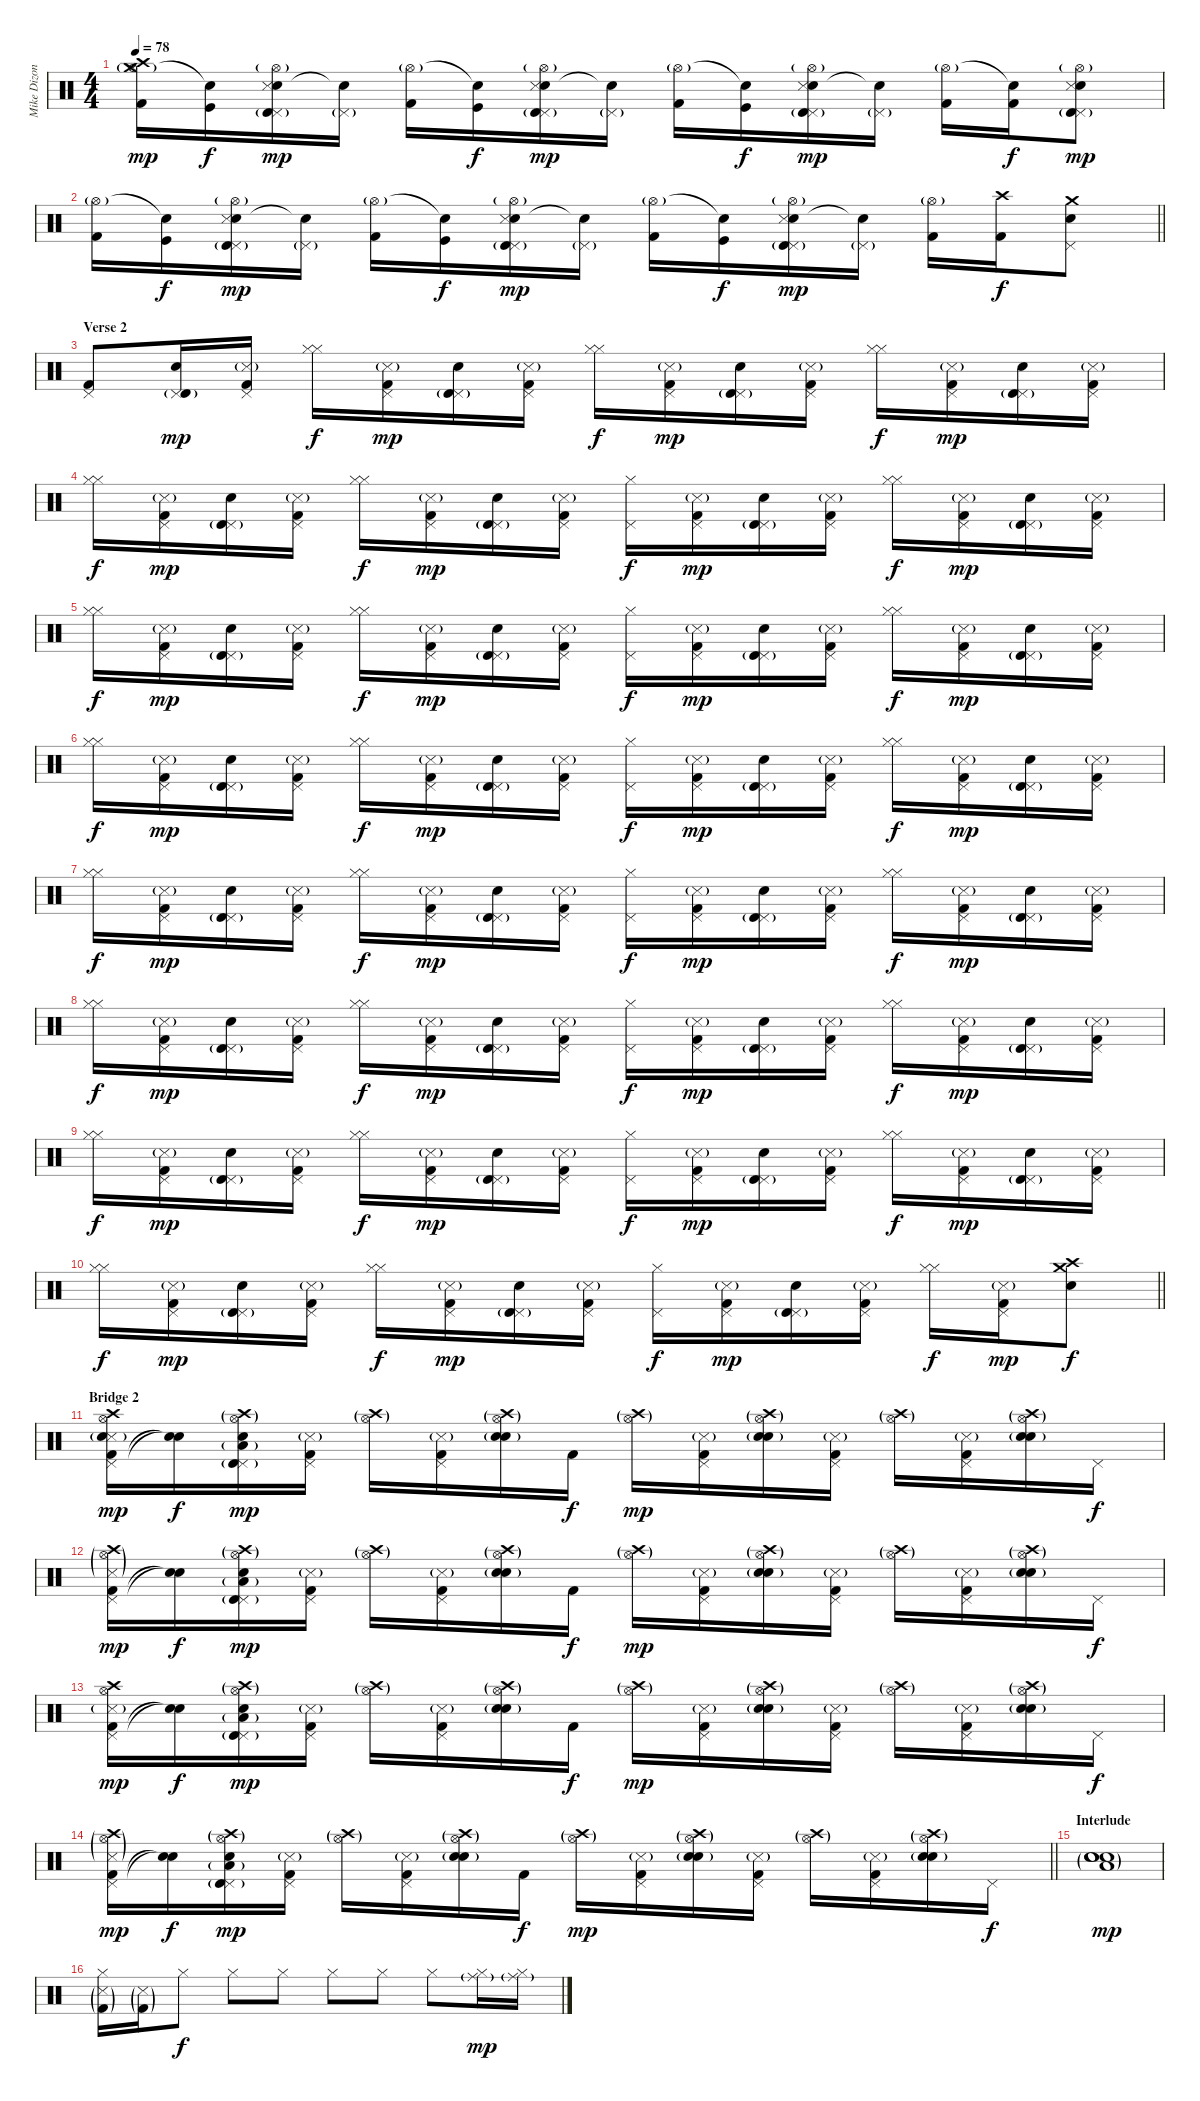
\track ("Mike Dizon (Drums)" "Mike Dizon") {instrument percussion}
\staff {score}
\articulation defaults
\ts (4 4)
\tempo 78
\clef neutral
\ks c
("Kick (hit) 2" "Hi-Hat (open)"{g} "Crash high (hit)" "Crash medium (hit)").16{dy mp} ("Kick (hit)" "Snare (hit)"{t}).16{dy f} ("Pedal Hi-Hat (hit)" "Electric Snare (hit)" "Hi-Hat (open)"{g} "Snare (side stick) 3" "Timbale high (hit)"{g}).16{dy mp} ("Pedal Hi-Hat (hit)"{g} "Snare (hit)"{t}).16 ("Kick (hit) 2" "Hi-Hat (open)"{g}).16 ("Kick (hit)" "Snare (hit)"{t}).16{dy f} ("Pedal Hi-Hat (hit)" "Electric Snare (hit)" "Hi-Hat (open)"{g} "Snare (side stick) 3" "Timbale high (hit)"{g}).16{dy mp} ("Pedal Hi-Hat (hit)"{g} "Snare (hit)"{t}).16 ("Kick (hit) 2" "Hi-Hat (open)"{g}).16 ("Kick (hit)" "Snare (hit)"{t}).16{dy f} ("Pedal Hi-Hat (hit)" "Electric Snare (hit)" "Hi-Hat (open)"{g} "Snare (side stick) 3" "Timbale high (hit)"{g}).16{dy mp} ("Pedal Hi-Hat (hit)"{g} "Snare (hit)"{t}).16 ("Kick (hit) 2" "Hi-Hat (open)"{g}).16 ("Kick (hit) 2" "Snare (hit)"{t}).16{dy f} ("Pedal Hi-Hat (hit)" "Electric Snare (hit)" "Hi-Hat (open)"{g} "Snare (side stick) 3" "Timbale high (hit)"{g}).8{dy mp} |
\barLineRight lightlight
("Kick (hit) 2" "Hi-Hat (open)"{g}).16 ("Kick (hit)" "Snare (hit)"{t}).16{dy f} ("Pedal Hi-Hat (hit)" "Electric Snare (hit)" "Hi-Hat (open)"{g} "Snare (side stick) 3" "Timbale high (hit)"{g}).16{dy mp} ("Pedal Hi-Hat (hit)"{g} "Snare (hit)"{t}).16 ("Kick (hit) 2" "Hi-Hat (open)"{g}).16 ("Kick (hit)" "Snare (hit)"{t}).16{dy f} ("Pedal Hi-Hat (hit)" "Electric Snare (hit)" "Hi-Hat (open)"{g} "Snare (side stick) 3" "Timbale high (hit)"{g}).16{dy mp} ("Pedal Hi-Hat (hit)"{g} "Snare (hit)"{t}).16 ("Kick (hit) 2" "Hi-Hat (open)"{g}).16 ("Kick (hit)" "Snare (hit)"{t}).16{dy f} ("Pedal Hi-Hat (hit)" "Electric Snare (hit)" "Hi-Hat (open)"{g} "Snare (side stick) 3" "Timbale high (hit)"{g}).16{dy mp} ("Pedal Hi-Hat (hit)"{g} "Snare (hit)"{t}).16 ("Kick (hit) 2" "Hi-Hat (open)"{g}).16 ("Kick (hit) 2" "Crash high (hit)").16{dy f} ("Pedal Hi-Hat (hit)" "Electric Snare (hit)" "Crash medium (hit)").8 |
\section ("" "Verse 2")
("Pedal Hi-Hat (hit)" "Kick (hit) 2").8 ("Pedal Hi-Hat (hit)" "Electric Snare (hit)" "Timbale high (hit)"{g}).16{dy mp} ("Pedal Hi-Hat (hit)" "Kick (hit) 2" "Snare (side stick) 3"{g}).16 ("Hi-Hat (closed)" "Hi-Hat (closed)").16{dy f} ("Pedal Hi-Hat (hit)" "Kick (hit) 2" "Snare (side stick) 3"{g}).16{dy mp} ("Pedal Hi-Hat (hit)" "Electric Snare (hit)" "Timbale high (hit)"{g}).16 ("Pedal Hi-Hat (hit)" "Kick (hit) 2" "Snare (side stick) 3"{g}).16 ("Hi-Hat (closed)" "Hi-Hat (closed)").16{dy f} ("Pedal Hi-Hat (hit)" "Kick (hit) 2" "Snare (side stick) 3"{g}).16{dy mp} ("Pedal Hi-Hat (hit)" "Electric Snare (hit)" "Timbale high (hit)"{g}).16 ("Pedal Hi-Hat (hit)" "Kick (hit) 2" "Snare (side stick) 3"{g}).16 ("Hi-Hat (closed)" "Hi-Hat (closed)").16{dy f} ("Pedal Hi-Hat (hit)" "Kick (hit) 2" "Snare (side stick) 3"{g}).16{dy mp} ("Pedal Hi-Hat (hit)" "Electric Snare (hit)" "Timbale high (hit)"{g}).16 ("Pedal Hi-Hat (hit)" "Kick (hit) 2" "Snare (side stick) 3"{g}).16 |
("Hi-Hat (closed)" "Hi-Hat (closed)").16{dy f} ("Pedal Hi-Hat (hit)" "Kick (hit) 2" "Snare (side stick) 3"{g}).16{dy mp} ("Pedal Hi-Hat (hit)" "Electric Snare (hit)" "Timbale high (hit)"{g}).16 ("Pedal Hi-Hat (hit)" "Kick (hit) 2" "Snare (side stick) 3"{g}).16 ("Hi-Hat (closed)" "Hi-Hat (closed)").16{dy f} ("Pedal Hi-Hat (hit)" "Kick (hit) 2" "Snare (side stick) 3"{g}).16{dy mp} ("Pedal Hi-Hat (hit)" "Electric Snare (hit)" "Timbale high (hit)"{g}).16 ("Pedal Hi-Hat (hit)" "Kick (hit) 2" "Snare (side stick) 3"{g}).16 ("Hi-Hat (closed)" "Pedal Hi-Hat (hit)").16{dy f} ("Pedal Hi-Hat (hit)" "Kick (hit) 2" "Snare (side stick) 3"{g}).16{dy mp} ("Pedal Hi-Hat (hit)" "Electric Snare (hit)" "Timbale high (hit)"{g}).16 ("Pedal Hi-Hat (hit)" "Kick (hit) 2" "Snare (side stick) 3"{g}).16 ("Hi-Hat (closed)" "Hi-Hat (closed)").16{dy f} ("Pedal Hi-Hat (hit)" "Kick (hit) 2" "Snare (side stick) 3"{g}).16{dy mp} ("Pedal Hi-Hat (hit)" "Electric Snare (hit)" "Timbale high (hit)"{g}).16 ("Pedal Hi-Hat (hit)" "Kick (hit) 2" "Snare (side stick) 3"{g}).16 |
("Hi-Hat (closed)" "Hi-Hat (closed)").16{dy f} ("Pedal Hi-Hat (hit)" "Kick (hit) 2" "Snare (side stick) 3"{g}).16{dy mp} ("Pedal Hi-Hat (hit)" "Electric Snare (hit)" "Timbale high (hit)"{g}).16 ("Pedal Hi-Hat (hit)" "Kick (hit) 2" "Snare (side stick) 3"{g}).16 ("Hi-Hat (closed)" "Hi-Hat (closed)").16{dy f} ("Pedal Hi-Hat (hit)" "Kick (hit) 2" "Snare (side stick) 3"{g}).16{dy mp} ("Pedal Hi-Hat (hit)" "Electric Snare (hit)" "Timbale high (hit)"{g}).16 ("Pedal Hi-Hat (hit)" "Kick (hit) 2" "Snare (side stick) 3"{g}).16 ("Hi-Hat (closed)" "Pedal Hi-Hat (hit)").16{dy f} ("Pedal Hi-Hat (hit)" "Kick (hit) 2" "Snare (side stick) 3"{g}).16{dy mp} ("Pedal Hi-Hat (hit)" "Electric Snare (hit)" "Timbale high (hit)"{g}).16 ("Pedal Hi-Hat (hit)" "Kick (hit) 2" "Snare (side stick) 3"{g}).16 ("Hi-Hat (closed)" "Hi-Hat (closed)").16{dy f} ("Pedal Hi-Hat (hit)" "Kick (hit) 2" "Snare (side stick) 3"{g}).16{dy mp} ("Pedal Hi-Hat (hit)" "Electric Snare (hit)" "Timbale high (hit)"{g}).16 ("Pedal Hi-Hat (hit)" "Kick (hit) 2" "Snare (side stick) 3"{g}).16 |
("Hi-Hat (closed)" "Hi-Hat (closed)").16{dy f} ("Pedal Hi-Hat (hit)" "Kick (hit) 2" "Snare (side stick) 3"{g}).16{dy mp} ("Pedal Hi-Hat (hit)" "Electric Snare (hit)" "Timbale high (hit)"{g}).16 ("Pedal Hi-Hat (hit)" "Kick (hit) 2" "Snare (side stick) 3"{g}).16 ("Hi-Hat (closed)" "Hi-Hat (closed)").16{dy f} ("Pedal Hi-Hat (hit)" "Kick (hit) 2" "Snare (side stick) 3"{g}).16{dy mp} ("Pedal Hi-Hat (hit)" "Electric Snare (hit)" "Timbale high (hit)"{g}).16 ("Pedal Hi-Hat (hit)" "Kick (hit) 2" "Snare (side stick) 3"{g}).16 ("Hi-Hat (closed)" "Pedal Hi-Hat (hit)").16{dy f} ("Pedal Hi-Hat (hit)" "Kick (hit) 2" "Snare (side stick) 3"{g}).16{dy mp} ("Pedal Hi-Hat (hit)" "Electric Snare (hit)" "Timbale high (hit)"{g}).16 ("Pedal Hi-Hat (hit)" "Kick (hit) 2" "Snare (side stick) 3"{g}).16 ("Hi-Hat (closed)" "Hi-Hat (closed)").16{dy f} ("Pedal Hi-Hat (hit)" "Kick (hit) 2" "Snare (side stick) 3"{g}).16{dy mp} ("Pedal Hi-Hat (hit)" "Electric Snare (hit)" "Timbale high (hit)"{g}).16 ("Pedal Hi-Hat (hit)" "Kick (hit) 2" "Snare (side stick) 3"{g}).16 |
("Hi-Hat (closed)" "Hi-Hat (closed)").16{dy f} ("Pedal Hi-Hat (hit)" "Kick (hit) 2" "Snare (side stick) 3"{g}).16{dy mp} ("Pedal Hi-Hat (hit)" "Electric Snare (hit)" "Timbale high (hit)"{g}).16 ("Pedal Hi-Hat (hit)" "Kick (hit) 2" "Snare (side stick) 3"{g}).16 ("Hi-Hat (closed)" "Hi-Hat (closed)").16{dy f} ("Pedal Hi-Hat (hit)" "Kick (hit) 2" "Snare (side stick) 3"{g}).16{dy mp} ("Pedal Hi-Hat (hit)" "Electric Snare (hit)" "Timbale high (hit)"{g}).16 ("Pedal Hi-Hat (hit)" "Kick (hit) 2" "Snare (side stick) 3"{g}).16 ("Hi-Hat (closed)" "Pedal Hi-Hat (hit)").16{dy f} ("Pedal Hi-Hat (hit)" "Kick (hit) 2" "Snare (side stick) 3"{g}).16{dy mp} ("Pedal Hi-Hat (hit)" "Electric Snare (hit)" "Timbale high (hit)"{g}).16 ("Pedal Hi-Hat (hit)" "Kick (hit) 2" "Snare (side stick) 3"{g}).16 ("Hi-Hat (closed)" "Hi-Hat (closed)").16{dy f} ("Pedal Hi-Hat (hit)" "Kick (hit) 2" "Snare (side stick) 3"{g}).16{dy mp} ("Pedal Hi-Hat (hit)" "Electric Snare (hit)" "Timbale high (hit)"{g}).16 ("Pedal Hi-Hat (hit)" "Kick (hit) 2" "Snare (side stick) 3"{g}).16 |
("Hi-Hat (closed)" "Hi-Hat (closed)").16{dy f} ("Pedal Hi-Hat (hit)" "Kick (hit) 2" "Snare (side stick) 3"{g}).16{dy mp} ("Pedal Hi-Hat (hit)" "Electric Snare (hit)" "Timbale high (hit)"{g}).16 ("Pedal Hi-Hat (hit)" "Kick (hit) 2" "Snare (side stick) 3"{g}).16 ("Hi-Hat (closed)" "Hi-Hat (closed)").16{dy f} ("Pedal Hi-Hat (hit)" "Kick (hit) 2" "Snare (side stick) 3"{g}).16{dy mp} ("Pedal Hi-Hat (hit)" "Electric Snare (hit)" "Timbale high (hit)"{g}).16 ("Pedal Hi-Hat (hit)" "Kick (hit) 2" "Snare (side stick) 3"{g}).16 ("Hi-Hat (closed)" "Pedal Hi-Hat (hit)").16{dy f} ("Pedal Hi-Hat (hit)" "Kick (hit) 2" "Snare (side stick) 3"{g}).16{dy mp} ("Pedal Hi-Hat (hit)" "Electric Snare (hit)" "Timbale high (hit)"{g}).16 ("Pedal Hi-Hat (hit)" "Kick (hit) 2" "Snare (side stick) 3"{g}).16 ("Hi-Hat (closed)" "Hi-Hat (closed)").16{dy f} ("Pedal Hi-Hat (hit)" "Kick (hit) 2" "Snare (side stick) 3"{g}).16{dy mp} ("Pedal Hi-Hat (hit)" "Electric Snare (hit)" "Timbale high (hit)"{g}).16 ("Pedal Hi-Hat (hit)" "Kick (hit) 2" "Snare (side stick) 3"{g}).16 |
("Hi-Hat (closed)" "Hi-Hat (closed)").16{dy f} ("Pedal Hi-Hat (hit)" "Kick (hit) 2" "Snare (side stick) 3"{g}).16{dy mp} ("Pedal Hi-Hat (hit)" "Electric Snare (hit)" "Timbale high (hit)"{g}).16 ("Pedal Hi-Hat (hit)" "Kick (hit) 2" "Snare (side stick) 3"{g}).16 ("Hi-Hat (closed)" "Hi-Hat (closed)").16{dy f} ("Pedal Hi-Hat (hit)" "Kick (hit) 2" "Snare (side stick) 3"{g}).16{dy mp} ("Pedal Hi-Hat (hit)" "Electric Snare (hit)" "Timbale high (hit)"{g}).16 ("Pedal Hi-Hat (hit)" "Kick (hit) 2" "Snare (side stick) 3"{g}).16 ("Hi-Hat (closed)" "Pedal Hi-Hat (hit)").16{dy f} ("Pedal Hi-Hat (hit)" "Kick (hit) 2" "Snare (side stick) 3"{g}).16{dy mp} ("Pedal Hi-Hat (hit)" "Electric Snare (hit)" "Timbale high (hit)"{g}).16 ("Pedal Hi-Hat (hit)" "Kick (hit) 2" "Snare (side stick) 3"{g}).16 ("Hi-Hat (closed)" "Hi-Hat (closed)").16{dy f} ("Pedal Hi-Hat (hit)" "Kick (hit) 2" "Snare (side stick) 3"{g}).16{dy mp} ("Pedal Hi-Hat (hit)" "Electric Snare (hit)" "Timbale high (hit)"{g}).16 ("Pedal Hi-Hat (hit)" "Kick (hit) 2" "Snare (side stick) 3"{g}).16 |
\barLineRight lightlight
("Hi-Hat (closed)" "Hi-Hat (closed)").16{dy f} ("Pedal Hi-Hat (hit)" "Kick (hit) 2" "Snare (side stick) 3"{g}).16{dy mp} ("Pedal Hi-Hat (hit)" "Electric Snare (hit)" "Timbale high (hit)"{g}).16 ("Pedal Hi-Hat (hit)" "Kick (hit) 2" "Snare (side stick) 3"{g}).16 ("Hi-Hat (closed)" "Hi-Hat (closed)").16{dy f} ("Pedal Hi-Hat (hit)" "Kick (hit) 2" "Snare (side stick) 3"{g}).16{dy mp} ("Pedal Hi-Hat (hit)" "Electric Snare (hit)" "Timbale high (hit)"{g}).16 ("Pedal Hi-Hat (hit)" "Kick (hit) 2" "Snare (side stick) 3"{g}).16 ("Hi-Hat (closed)" "Pedal Hi-Hat (hit)").16{dy f} ("Pedal Hi-Hat (hit)" "Kick (hit) 2" "Snare (side stick) 3"{g}).16{dy mp} ("Pedal Hi-Hat (hit)" "Electric Snare (hit)" "Timbale high (hit)"{g}).16 ("Pedal Hi-Hat (hit)" "Kick (hit) 2" "Snare (side stick) 3"{g}).16 ("Hi-Hat (closed)" "Hi-Hat (closed)").16{dy f} ("Pedal Hi-Hat (hit)" "Kick (hit) 2" "Snare (side stick) 3"{g}).16{dy mp} ("Crash medium (hit)" "Crash high (hit)" "Electric Snare (hit)").8{dy f} |
\section ("" "Bridge 2")
("Pedal Hi-Hat (hit)" "Kick (hit) 2" "Snare (side stick) 3"{g} "Electric Snare (hit)"{g} "Hi-Hat (open)" "Crash high (hit)").16{dy mp} ("Snare (hit)"{t} "Snare (hit)"{t}).16{dy f} ("Pedal Hi-Hat (hit)" "Electric Snare (hit)" "Timbale high (hit)"{g} "Low Tom (hit)"{g} "Hi-Hat (open)"{g} "Crash high (hit)"{g}).16{dy mp} ("Pedal Hi-Hat (hit)" "Kick (hit) 2" "Snare (side stick) 3"{g}).16 ("Hi-Hat (open)"{g} "Crash high (hit)"{g}).16 ("Pedal Hi-Hat (hit)" "Kick (hit) 2" "Snare (side stick) 3"{g}).16 ("Electric Snare (hit)" "Snare (hit) 2"{g} "Hi-Hat (open)"{g} "Crash high (hit)"{g}).16 "Kick (hit) 2".16{dy f} ("Hi-Hat (open)"{g} "Crash high (hit)"{g}).16{dy mp} ("Pedal Hi-Hat (hit)" "Kick (hit) 2" "Snare (side stick) 3"{g}).16 ("Electric Snare (hit)" "Snare (hit) 2"{g} "Hi-Hat (open)"{g} "Crash high (hit)"{g}).16 ("Pedal Hi-Hat (hit)" "Kick (hit) 2" "Snare (side stick) 3"{g}).16 ("Hi-Hat (open)"{g} "Crash high (hit)"{g}).16 ("Pedal Hi-Hat (hit)" "Kick (hit) 2" "Snare (side stick) 3"{g}).16 ("Electric Snare (hit)" "Snare (hit) 2"{g} "Hi-Hat (open)"{g} "Crash high (hit)"{g}).16 "Pedal Hi-Hat (hit)".16{dy f} |
("Pedal Hi-Hat (hit)" "Kick (hit) 2" "Snare (side stick) 3"{g} "Hi-Hat (open)"{g} "Crash high (hit)"{g}).16{dy mp} ("Snare (hit)"{t} "Snare (hit)"{t}).16{dy f} ("Pedal Hi-Hat (hit)" "Electric Snare (hit)" "Timbale high (hit)"{g} "Low Tom (hit)"{g} "Hi-Hat (open)"{g} "Crash high (hit)"{g}).16{dy mp} ("Pedal Hi-Hat (hit)" "Kick (hit) 2" "Snare (side stick) 3"{g}).16 ("Hi-Hat (open)"{g} "Crash high (hit)"{g}).16 ("Pedal Hi-Hat (hit)" "Kick (hit) 2" "Snare (side stick) 3"{g}).16 ("Electric Snare (hit)" "Snare (hit) 2"{g} "Hi-Hat (open)"{g} "Crash high (hit)"{g}).16 "Kick (hit) 2".16{dy f} ("Hi-Hat (open)"{g} "Crash high (hit)"{g}).16{dy mp} ("Pedal Hi-Hat (hit)" "Kick (hit) 2" "Snare (side stick) 3"{g}).16 ("Electric Snare (hit)" "Snare (hit) 2"{g} "Hi-Hat (open)"{g} "Crash high (hit)"{g}).16 ("Pedal Hi-Hat (hit)" "Kick (hit) 2" "Snare (side stick) 3"{g}).16 ("Hi-Hat (open)"{g} "Crash high (hit)"{g}).16 ("Pedal Hi-Hat (hit)" "Kick (hit) 2" "Snare (side stick) 3"{g}).16 ("Electric Snare (hit)" "Snare (hit) 2"{g} "Hi-Hat (open)"{g} "Crash high (hit)"{g}).16 "Pedal Hi-Hat (hit)".16{dy f} |
("Pedal Hi-Hat (hit)" "Kick (hit) 2" "Snare (side stick) 3"{g} "Hi-Hat (open)" "Crash high (hit)").16{dy mp} ("Snare (hit)"{t} "Snare (hit)"{t}).16{dy f} ("Pedal Hi-Hat (hit)" "Electric Snare (hit)" "Timbale high (hit)"{g} "Low Tom (hit)"{g} "Hi-Hat (open)"{g} "Crash high (hit)"{g}).16{dy mp} ("Pedal Hi-Hat (hit)" "Kick (hit) 2" "Snare (side stick) 3"{g}).16 ("Hi-Hat (open)"{g} "Crash high (hit)"{g}).16 ("Pedal Hi-Hat (hit)" "Kick (hit) 2" "Snare (side stick) 3"{g}).16 ("Electric Snare (hit)" "Snare (hit) 2"{g} "Hi-Hat (open)"{g} "Crash high (hit)"{g}).16 "Kick (hit) 2".16{dy f} ("Hi-Hat (open)"{g} "Crash high (hit)"{g}).16{dy mp} ("Pedal Hi-Hat (hit)" "Kick (hit) 2" "Snare (side stick) 3"{g}).16 ("Electric Snare (hit)" "Snare (hit) 2"{g} "Hi-Hat (open)"{g} "Crash high (hit)"{g}).16 ("Pedal Hi-Hat (hit)" "Kick (hit) 2" "Snare (side stick) 3"{g}).16 ("Hi-Hat (open)"{g} "Crash high (hit)"{g}).16 ("Pedal Hi-Hat (hit)" "Kick (hit) 2" "Snare (side stick) 3"{g}).16 ("Electric Snare (hit)" "Snare (hit) 2"{g} "Hi-Hat (open)"{g} "Crash high (hit)"{g}).16 "Pedal Hi-Hat (hit)".16{dy f} |
\barLineRight lightlight
("Pedal Hi-Hat (hit)" "Kick (hit) 2" "Snare (side stick) 3"{g} "Hi-Hat (open)"{g} "Crash high (hit)"{g}).16{dy mp} ("Snare (hit)"{t} "Snare (hit)"{t}).16{dy f} ("Pedal Hi-Hat (hit)" "Electric Snare (hit)" "Timbale high (hit)"{g} "Low Tom (hit)"{g} "Hi-Hat (open)"{g} "Crash high (hit)"{g}).16{dy mp} ("Pedal Hi-Hat (hit)" "Kick (hit) 2" "Snare (side stick) 3"{g}).16 ("Hi-Hat (open)"{g} "Crash high (hit)"{g}).16 ("Pedal Hi-Hat (hit)" "Kick (hit) 2" "Snare (side stick) 3"{g}).16 ("Electric Snare (hit)" "Snare (hit) 2"{g} "Hi-Hat (open)"{g} "Crash high (hit)"{g}).16 "Kick (hit) 2".16{dy f} ("Hi-Hat (open)"{g} "Crash high (hit)"{g}).16{dy mp} ("Pedal Hi-Hat (hit)" "Kick (hit) 2" "Snare (side stick) 3"{g}).16 ("Electric Snare (hit)" "Snare (hit) 2"{g} "Hi-Hat (open)"{g} "Crash high (hit)"{g}).16 ("Pedal Hi-Hat (hit)" "Kick (hit) 2" "Snare (side stick) 3"{g}).16 ("Hi-Hat (open)"{g} "Crash high (hit)"{g}).16 ("Pedal Hi-Hat (hit)" "Kick (hit) 2" "Snare (side stick) 3"{g}).16 ("Electric Snare (hit)" "Snare (hit) 2"{g} "Hi-Hat (open)"{g} "Crash high (hit)"{g}).16 "Pedal Hi-Hat (hit)".16{dy f} |
\section ("" "Interlude")
("Electric Snare (hit)" "Electric Snare (hit)" "Low Floor Tom (hit)"{g} "Snare (hit) 2"{g}).1{dy mp} |
("Hi-Hat (closed)" "Snare (side stick) 3"{g} "Kick (hit) 2"{g}).16 ("Snare (side stick) 3"{g} "Kick (hit) 2"{g}).16 "Hi-Hat (closed)".8{dy f} "Hi-Hat (closed)".8 "Hi-Hat (closed)".8 "Hi-Hat (closed)".8 "Hi-Hat (closed)".8 "Hi-Hat (closed)".8 ("Hi-Hat (closed)" "Ride (middle)"{g}).16{dy mp} ("Hi-Hat (closed)" "Ride (middle)"{g}).16
